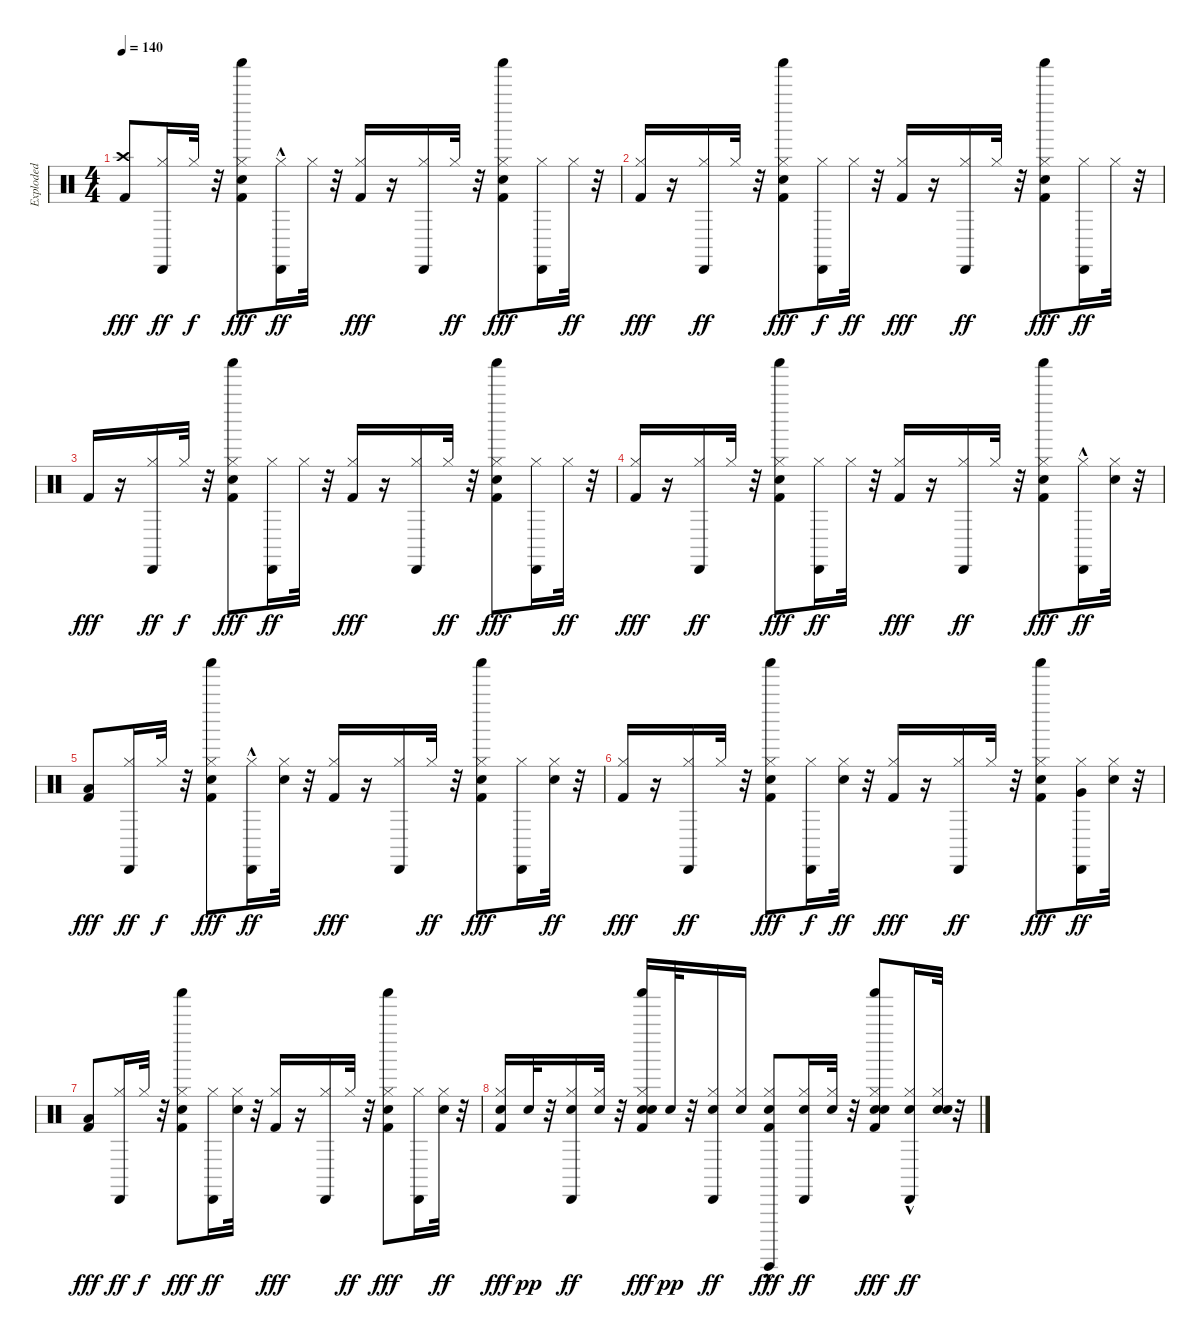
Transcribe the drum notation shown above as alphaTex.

\track ("Exploded" "Exploded") {instrument percussion}
\staff {score}
\articulation defaults
\ts (4 4)
\tempo 140
\clef neutral
\ks c
("Crash high (hit)" "Kick (hit) 2").8{dy fff} ("Cabasa (hit)" "Hi-Hat (closed)").16{dy ff} "Hi-Hat (closed)".32{dy f} r.32 ("Hand Clap (hit)" "Shaker (hit)" "Hi-Hat (closed)" "Kick (hit) 2").8{dy fff} ("Cabasa (hit)"{hac} "Hi-Hat (closed)").16{dy ff} "Hi-Hat (closed)".32 r.32 ("Hi-Hat (closed)" "Kick (hit) 2").16{dy fff} r.16 ("Cabasa (hit)" "Hi-Hat (closed)").16 "Hi-Hat (closed)".32{dy ff} r.32 ("Hand Clap (hit)" "Shaker (hit)" "Hi-Hat (closed)" "Kick (hit) 2").8{dy fff} ("Cabasa (hit)" "Hi-Hat (closed)").16 "Hi-Hat (closed)".32{dy ff} r.32 |
("Hi-Hat (closed)" "Kick (hit) 2").16{dy fff} r.16 ("Cabasa (hit)" "Hi-Hat (closed)").16{dy ff} "Hi-Hat (closed)".32 r.32 ("Hand Clap (hit)" "Shaker (hit)" "Hi-Hat (closed)" "Kick (hit) 2").8{dy fff} ("Cabasa (hit)" "Hi-Hat (closed)").16{dy f} "Hi-Hat (closed)".32{dy ff} r.32 ("Hi-Hat (closed)" "Kick (hit) 2").16{dy fff} r.16 ("Cabasa (hit)" "Hi-Hat (closed)").16{dy ff} "Hi-Hat (closed)".32 r.32 ("Hand Clap (hit)" "Shaker (hit)" "Hi-Hat (closed)" "Kick (hit) 2").8{dy fff} ("Cabasa (hit)" "Hi-Hat (closed)").16{dy ff} "Hi-Hat (closed)".32 r.32 |
"Kick (hit) 2".16{dy fff} r.16 ("Cabasa (hit)" "Hi-Hat (closed)").16{dy ff} "Hi-Hat (closed)".32{dy f} r.32 ("Hand Clap (hit)" "Shaker (hit)" "Hi-Hat (closed)" "Kick (hit) 2").8{dy fff} ("Cabasa (hit)" "Hi-Hat (closed)").16{dy ff} "Hi-Hat (closed)".32 r.32 ("Hi-Hat (closed)" "Kick (hit) 2").16{dy fff} r.16 ("Cabasa (hit)" "Hi-Hat (closed)").16 "Hi-Hat (closed)".32{dy ff} r.32 ("Hand Clap (hit)" "Shaker (hit)" "Hi-Hat (closed)" "Kick (hit) 2").8{dy fff} ("Cabasa (hit)" "Hi-Hat (closed)").16 "Hi-Hat (closed)".32{dy ff} r.32 |
("Hi-Hat (closed)" "Kick (hit) 2").16{dy fff} r.16 ("Cabasa (hit)" "Hi-Hat (closed)").16{dy ff} "Hi-Hat (closed)".32 r.32 ("Hand Clap (hit)" "Shaker (hit)" "Hi-Hat (closed)" "Kick (hit) 2").8{dy fff} ("Cabasa (hit)" "Hi-Hat (closed)").16{dy ff} "Hi-Hat (closed)".32 r.32 ("Hi-Hat (closed)" "Kick (hit) 2").16{dy fff} r.16 ("Cabasa (hit)" "Hi-Hat (closed)").16{dy ff} "Hi-Hat (closed)".32 r.32 ("Hand Clap (hit)" "Shaker (hit)" "Hi-Hat (closed)" "Kick (hit) 2").8{dy fff} ("Cabasa (hit)"{hac} "Hi-Hat (closed)").16{dy ff} ("Snare (hit) 2" "Hi-Hat (closed)").32 r.32 |
("Low Floor Tom (hit)" "Kick (hit) 2").8{dy fff} ("Cabasa (hit)" "Hi-Hat (closed)").16{dy ff} "Hi-Hat (closed)".32{dy f} r.32 ("Hand Clap (hit)" "Shaker (hit)" "Hi-Hat (closed)" "Kick (hit) 2").8{dy fff} ("Cabasa (hit)"{hac} "Hi-Hat (closed)").16{dy ff} ("Snare (hit) 2" "Hi-Hat (closed)").32 r.32 ("Hi-Hat (closed)" "Kick (hit) 2").16{dy fff} r.16 ("Cabasa (hit)" "Hi-Hat (closed)").16 "Hi-Hat (closed)".32{dy ff} r.32 ("Hand Clap (hit)" "Shaker (hit)" "Hi-Hat (closed)" "Kick (hit) 2").8{dy fff} ("Cabasa (hit)" "Hi-Hat (closed)").16 ("Snare (hit) 2" "Hi-Hat (closed)").32{dy ff} r.32 |
("Hi-Hat (closed)" "Kick (hit) 2").16{dy fff} r.16 ("Cabasa (hit)" "Hi-Hat (closed)").16{dy ff} "Hi-Hat (closed)".32 r.32 ("Hand Clap (hit)" "Shaker (hit)" "Hi-Hat (closed)" "Kick (hit) 2").8{dy fff} ("Cabasa (hit)" "Hi-Hat (closed)").16{dy f} ("Snare (hit) 2" "Hi-Hat (closed)").32{dy ff} r.32 ("Hi-Hat (closed)" "Kick (hit) 2").16{dy fff} r.16 ("Cabasa (hit)" "Hi-Hat (closed)").16{dy ff} "Hi-Hat (closed)".32 r.32 ("Hand Clap (hit)" "Shaker (hit)" "Hi-Hat (closed)" "Kick (hit) 2").8{dy fff} ("Very Low Tom (hit)" "Cabasa (hit)" "Hi-Hat (closed)").16{dy ff} ("Snare (hit) 2" "Hi-Hat (closed)").32 r.32 |
("Low Floor Tom (hit)" "Kick (hit) 2").8{dy fff} ("Cabasa (hit)" "Hi-Hat (closed)").16{dy ff} "Hi-Hat (closed)".32{dy f} r.32 ("Hand Clap (hit)" "Shaker (hit)" "Hi-Hat (closed)" "Kick (hit) 2").8{dy fff} ("Cabasa (hit)" "Hi-Hat (closed)").16{dy ff} ("Snare (hit) 2" "Hi-Hat (closed)").32 r.32 ("Hi-Hat (closed)" "Kick (hit) 2").16{dy fff} r.16 ("Cabasa (hit)" "Hi-Hat (closed)").16 "Hi-Hat (closed)".32{dy ff} r.32 ("Hand Clap (hit)" "Shaker (hit)" "Hi-Hat (closed)" "Kick (hit) 2").8{dy fff} ("Cabasa (hit)" "Hi-Hat (closed)").16 ("Snare (hit) 2" "Hi-Hat (closed)").32{dy ff} r.32 |
("Snare (hit) 2" "Hi-Hat (closed)" "Kick (hit) 2").16{dy fff} "Snare (hit) 2".32{dy pp} r.32 ("Snare (hit) 2" "Cabasa (hit)" "Hi-Hat (closed)").16{dy ff} ("Snare (hit) 2" "Hi-Hat (closed)").32 r.32 ("Snare (hit) 2" "Hand Clap (hit)" "Shaker (hit)" "Hi-Hat (closed)" "Kick (hit) 2").16{dy fff} "Snare (hit) 2".32{dy pp} r.32 ("Snare (hit) 2" "Cabasa (hit)" "Hi-Hat (closed)").16{dy ff} ("Snare (hit) 2" "Hi-Hat (closed)").16 ("Snare (hit) 2" "Guiro (hit)"{hac} "Hi-Hat (closed)" "Kick (hit) 2").8{dy fff} ("Snare (hit) 2" "Cabasa (hit)" "Hi-Hat (closed)").16{dy ff} ("Snare (hit) 2" "Hi-Hat (closed)").32 r.32 ("Snare (hit) 2" "Hand Clap (hit)" "Shaker (hit)" "Hi-Hat (closed)" "Kick (hit) 2").8{dy fff} ("Snare (hit) 2" "Cabasa (hit)"{hac} "Hi-Hat (closed)").16{dy ff} ("Snare (hit) 2" "Snare (hit) 2" "Hi-Hat (closed)").32 r.32
